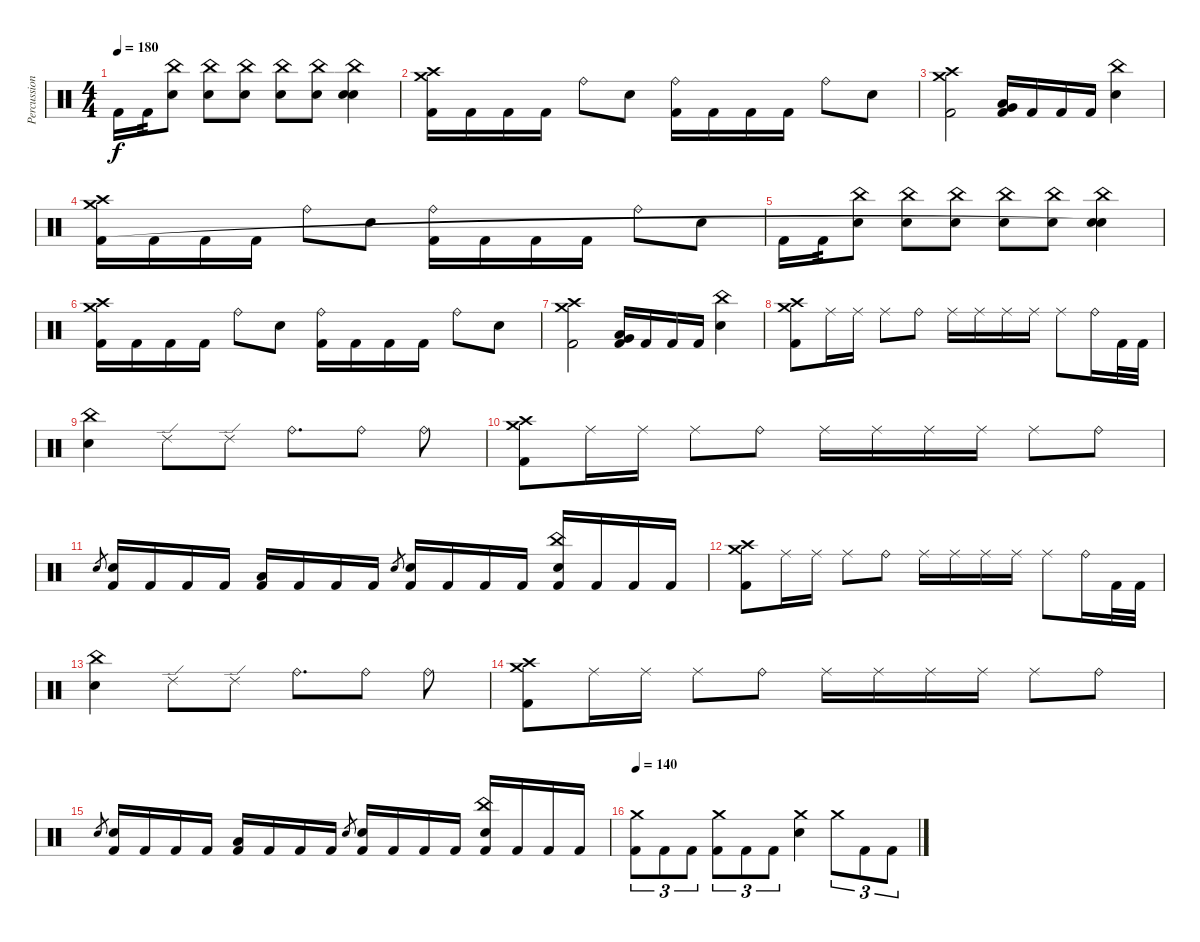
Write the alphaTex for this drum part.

\track ("Percussion" "Percussion") {instrument percussion}
\staff {score}
\articulation defaults
\ts (4 4)
\tempo 180
\clef neutral
\ks c "Kick (hit) 2".16{dy f} "Kick (hit) 2".16{tp 2}
("China (hit)" "Electric Snare (hit)").8 ("China (hit)" "Electric Snare (hit)").8 ("China (hit)" "Electric Snare (hit)").8 ("China (hit)" "Electric Snare (hit)").8 ("China (hit)" "Electric Snare (hit)").8 ("China (hit)" "Electric Snare (hit)" "Snare (hit)"{t}).4 |
("Crash high (hit)" "Crash medium (hit)" "Kick (hit) 2").16 "Kick (hit) 2".16 "Kick (hit) 2".16 "Kick (hit) 2".16 "Ride (bell)".8 "Electric Snare (hit)".8 ("Ride (bell)" "Kick (hit) 2").16 "Kick (hit) 2".16 "Kick (hit) 2".16 "Kick (hit) 2".16 "Ride (bell)".8 "Electric Snare (hit)".8 |
("Crash medium (hit)" "Crash high (hit)" "Kick (hit) 2").2 ("Low Floor Tom (hit)" "Very Low Tom (hit)" "Kick (hit) 2").16 "Kick (hit) 2".16 "Kick (hit) 2".16 "Kick (hit) 2".16 ("China (hit)" "Electric Snare (hit)").4 |
("Crash high (hit)" "Crash medium (hit)" "Kick (hit) 2").16 "Kick (hit) 2".16 "Kick (hit) 2".16 "Kick (hit) 2".16 "Ride (bell)".8 "Electric Snare (hit)".8 ("Ride (bell)" "Kick (hit) 2").16 "Kick (hit) 2".16 "Kick (hit) 2".16 "Kick (hit) 2".16 "Ride (bell)".8 "Electric Snare (hit)".8 |
"Kick (hit) 2".16 "Kick (hit) 2".16{tp 2} ("China (hit)" "Electric Snare (hit)").8 ("China (hit)" "Electric Snare (hit)").8 ("China (hit)" "Electric Snare (hit)").8 ("China (hit)" "Electric Snare (hit)").8 ("China (hit)" "Electric Snare (hit)").8 ("China (hit)" "Electric Snare (hit)" "Snare (hit)"{t}).4 |
("Crash high (hit)" "Crash medium (hit)" "Kick (hit) 2").16 "Kick (hit) 2".16 "Kick (hit) 2".16 "Kick (hit) 2".16 "Ride (bell)".8 "Electric Snare (hit)".8 ("Ride (bell)" "Kick (hit) 2").16 "Kick (hit) 2".16 "Kick (hit) 2".16 "Kick (hit) 2".16 "Ride (bell)".8 "Electric Snare (hit)".8 |
("Crash medium (hit)" "Crash high (hit)" "Kick (hit) 2").2 ("Low Floor Tom (hit)" "Very Low Tom (hit)" "Kick (hit) 2").16 "Kick (hit) 2".16 "Kick (hit) 2".16 "Kick (hit) 2".16 ("China (hit)" "Electric Snare (hit)").4 |
("Crash medium (hit)" "Crash high (hit)" "Kick (hit) 2").8 "Ride (middle)".16 "Ride (middle)".16 "Ride (middle)".8 "Ride (bell)".8 "Ride (middle)".16 "Ride (middle)".16 "Ride (middle)".16 "Ride (middle)".16 "Ride (middle)".8 "Ride (bell)".16 "Kick (hit) 2".32 "Kick (hit) 2".32 |
("China (hit)" "Electric Snare (hit)").4 "Ride (edge) 2".8 "Ride (edge) 2".8 "Ride (bell)".8{d} "Ride (bell)".8 "Ride (bell)".8 |
("Crash medium (hit)" "Crash high (hit)" "Kick (hit) 2").8 "Ride (middle)".16 "Ride (middle)".16 "Ride (middle)".8 "Ride (bell)".8 "Ride (middle)".16 "Ride (middle)".16 "Ride (middle)".16 "Ride (middle)".16 "Ride (middle)".8 "Ride (bell)".8 |
"Electric Snare (hit)".8{gr} ("Electric Snare (hit)" "Kick (hit) 2").16 "Kick (hit) 2".16 "Kick (hit) 2".16 "Kick (hit) 2".16 ("Low Tom (hit)" "Kick (hit) 2").16 "Kick (hit) 2".16 "Kick (hit) 2".16 "Kick (hit) 2".16 "Electric Snare (hit)".8{gr} ("Electric Snare (hit)" "Kick (hit) 2").16 "Kick (hit) 2".16 "Kick (hit) 2".16 "Kick (hit) 2".16 ("China (hit)" "Electric Snare (hit)" "Kick (hit) 2").16 "Kick (hit) 2".16 "Kick (hit) 2".16 "Kick (hit) 2".16 |
("Crash medium (hit)" "Crash high (hit)" "Kick (hit) 2").8 "Ride (middle)".16 "Ride (middle)".16 "Ride (middle)".8 "Ride (bell)".8 "Ride (middle)".16 "Ride (middle)".16 "Ride (middle)".16 "Ride (middle)".16 "Ride (middle)".8 "Ride (bell)".16 "Kick (hit) 2".32 "Kick (hit) 2".32 |
("China (hit)" "Electric Snare (hit)").4 "Ride (edge) 2".8 "Ride (edge) 2".8 "Ride (bell)".8{d} "Ride (bell)".8 "Ride (bell)".8 |
("Crash medium (hit)" "Crash high (hit)" "Kick (hit) 2").8 "Ride (middle)".16 "Ride (middle)".16 "Ride (middle)".8 "Ride (bell)".8 "Ride (middle)".16 "Ride (middle)".16 "Ride (middle)".16 "Ride (middle)".16 "Ride (middle)".8 "Ride (bell)".8 |
"Electric Snare (hit)".8{gr} ("Electric Snare (hit)" "Kick (hit) 2").16 "Kick (hit) 2".16 "Kick (hit) 2".16 "Kick (hit) 2".16 ("Low Tom (hit)" "Kick (hit) 2").16 "Kick (hit) 2".16 "Kick (hit) 2".16 "Kick (hit) 2".16 "Electric Snare (hit)".8{gr} ("Electric Snare (hit)" "Kick (hit) 2").16 "Kick (hit) 2".16 "Kick (hit) 2".16 "Kick (hit) 2".16 ("China (hit)" "Electric Snare (hit)" "Kick (hit) 2").16 "Kick (hit) 2".16 "Kick (hit) 2".16 "Kick (hit) 2".16 |
\tempo 140
("Crash medium (hit)" "Kick (hit) 2").8{tu (3 2)} "Kick (hit) 2".8{tu (3 2)} "Kick (hit) 2".8{tu (3 2)} ("Crash medium (hit)" "Kick (hit) 2").8{tu (3 2)} "Kick (hit) 2".8{tu (3 2)} "Kick (hit) 2".8{tu (3 2)} ("Crash medium (hit)" "Electric Snare (hit)").4 "Crash medium (hit)".8{tu (3 2)} "Kick (hit) 2".8{tu (3 2)} "Kick (hit) 2".8{tu (3 2)}
